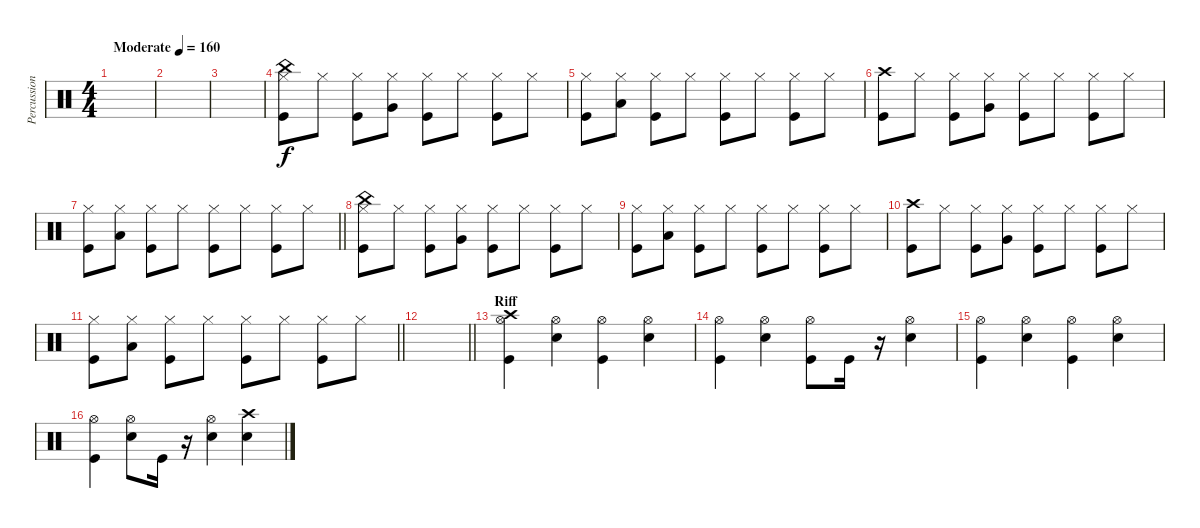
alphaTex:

\track ("Percussion" "Percussion") {instrument percussion}
\staff {score}
\articulation defaults
\ts (4 4)
\tempo (160 "Moderate")
\clef neutral
\ks c
|
|
|
("Kick (hit)" "Hi-Hat (closed)" "China (hit)").8 "Hi-Hat (closed)".8 ("Hi-Hat (closed)" "Kick (hit)").8 ("Hi-Hat (closed)" "Very Low Tom (hit)").8 ("Hi-Hat (closed)" "Kick (hit)").8 "Hi-Hat (closed)".8 ("Hi-Hat (closed)" "Kick (hit)").8 "Hi-Hat (closed)".8 |
("Kick (hit)" "Hi-Hat (closed)").8 ("Low Floor Tom (hit)" "Hi-Hat (closed)").8 ("Kick (hit)" "Hi-Hat (closed)").8 "Hi-Hat (closed)".8 ("Hi-Hat (closed)" "Kick (hit)").8 "Hi-Hat (closed)".8 ("Kick (hit)" "Hi-Hat (closed)").8 "Hi-Hat (closed)".8 |
("Kick (hit)" "Crash high (hit)").8 "Hi-Hat (closed)".8 ("Hi-Hat (closed)" "Kick (hit)").8 ("Hi-Hat (closed)" "Very Low Tom (hit)").8 ("Hi-Hat (closed)" "Kick (hit)").8 "Hi-Hat (closed)".8 ("Hi-Hat (closed)" "Kick (hit)").8 "Hi-Hat (closed)".8 |
\barLineRight lightlight
("Kick (hit)" "Hi-Hat (closed)").8 ("Low Floor Tom (hit)" "Hi-Hat (closed)").8 ("Kick (hit)" "Hi-Hat (closed)").8 "Hi-Hat (closed)".8 ("Hi-Hat (closed)" "Kick (hit)").8 "Hi-Hat (closed)".8 ("Kick (hit)" "Hi-Hat (closed)").8 "Hi-Hat (closed)".8 |
("Kick (hit)" "Hi-Hat (closed)" "China (hit)").8 "Hi-Hat (closed)".8 ("Hi-Hat (closed)" "Kick (hit)").8 ("Hi-Hat (closed)" "Very Low Tom (hit)").8 ("Hi-Hat (closed)" "Kick (hit)").8 "Hi-Hat (closed)".8 ("Hi-Hat (closed)" "Kick (hit)").8 "Hi-Hat (closed)".8 |
("Kick (hit)" "Hi-Hat (closed)").8 ("Low Floor Tom (hit)" "Hi-Hat (closed)").8 ("Kick (hit)" "Hi-Hat (closed)").8 "Hi-Hat (closed)".8 ("Hi-Hat (closed)" "Kick (hit)").8 "Hi-Hat (closed)".8 ("Kick (hit)" "Hi-Hat (closed)").8 "Hi-Hat (closed)".8 |
("Kick (hit)" "Crash high (hit)").8 "Hi-Hat (closed)".8 ("Hi-Hat (closed)" "Kick (hit)").8 ("Hi-Hat (closed)" "Very Low Tom (hit)").8 ("Hi-Hat (closed)" "Kick (hit)").8 "Hi-Hat (closed)".8 ("Hi-Hat (closed)" "Kick (hit)").8 "Hi-Hat (closed)".8 |
\barLineRight lightlight
("Kick (hit)" "Hi-Hat (closed)").8 ("Low Floor Tom (hit)" "Hi-Hat (closed)").8 ("Kick (hit)" "Hi-Hat (closed)").8 "Hi-Hat (closed)".8 ("Hi-Hat (closed)" "Kick (hit)").8 "Hi-Hat (closed)".8 ("Kick (hit)" "Hi-Hat (closed)").8 "Hi-Hat (closed)".8 |
\barLineRight lightlight
|
\section ("" "Riff")
("Kick (hit)" "Crash high (hit)" "Hi-Hat (open)").4 ("Hi-Hat (open)" "Snare (hit) 2").4 ("Kick (hit)" "Hi-Hat (open)").4 ("Snare (hit) 2" "Hi-Hat (open)").4 |
("Kick (hit)" "Hi-Hat (open)").4 ("Hi-Hat (open)" "Snare (hit) 2").4 ("Kick (hit)" "Hi-Hat (open)").8 "Kick (hit)".16 r.16 ("Snare (hit) 2" "Hi-Hat (open)").4 |
("Kick (hit)" "Hi-Hat (open)").4 ("Hi-Hat (open)" "Snare (hit) 2").4 ("Kick (hit)" "Hi-Hat (open)").4 ("Snare (hit) 2" "Hi-Hat (open)").4 |
("Kick (hit)" "Hi-Hat (open)").4 ("Snare (hit) 2" "Hi-Hat (open)").8 "Kick (hit)".16 r.16 ("Snare (hit) 2" "Hi-Hat (open)").4 ("Snare (hit) 2" "Crash high (hit)").4
